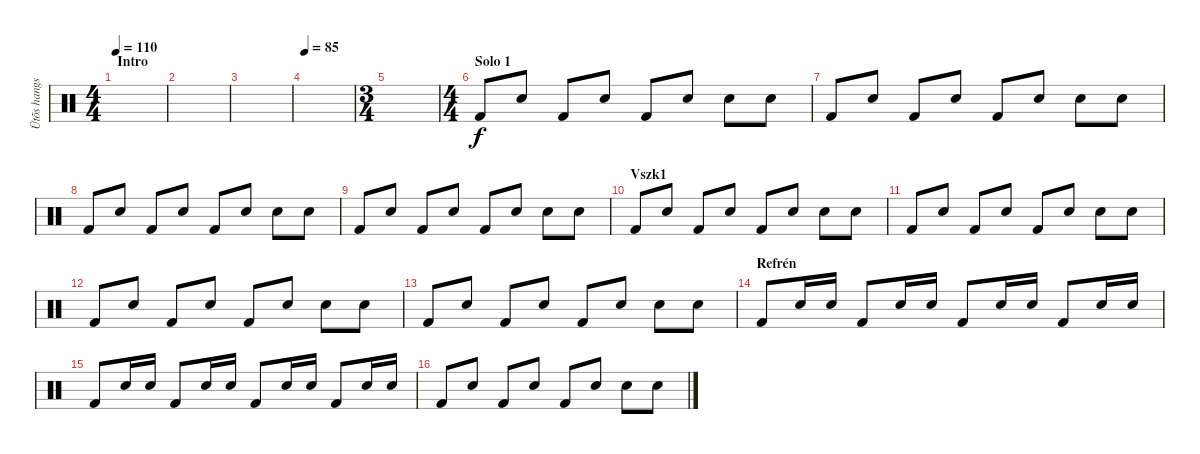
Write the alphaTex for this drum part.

\track ("Ütõs hangszer" "Ütõs hangs") {instrument percussion}
\staff {score}
\articulation defaults
\ts (4 4)
\section ("" "Intro")
\tempo 110
\clef neutral
\ks c
|
|
|
\tempo 85
|
\ts (3 4)
|
\ts (4 4)
\section ("" "Solo 1")
"Kick (hit) 2".8 "Electric Snare (hit)".8 "Kick (hit) 2".8 "Electric Snare (hit)".8 "Kick (hit) 2".8 "Electric Snare (hit)".8 "Electric Snare (hit)".8 "Electric Snare (hit)".8 |
"Kick (hit) 2".8 "Electric Snare (hit)".8 "Kick (hit) 2".8 "Electric Snare (hit)".8 "Kick (hit) 2".8 "Electric Snare (hit)".8 "Electric Snare (hit)".8 "Electric Snare (hit)".8 |
"Kick (hit) 2".8 "Electric Snare (hit)".8 "Kick (hit) 2".8 "Electric Snare (hit)".8 "Kick (hit) 2".8 "Electric Snare (hit)".8 "Electric Snare (hit)".8 "Electric Snare (hit)".8 |
"Kick (hit) 2".8 "Electric Snare (hit)".8 "Kick (hit) 2".8 "Electric Snare (hit)".8 "Kick (hit) 2".8 "Electric Snare (hit)".8 "Electric Snare (hit)".8 "Electric Snare (hit)".8 |
\section ("" "Vszk1")
"Kick (hit) 2".8 "Electric Snare (hit)".8 "Kick (hit) 2".8 "Electric Snare (hit)".8 "Kick (hit) 2".8 "Electric Snare (hit)".8 "Electric Snare (hit)".8 "Electric Snare (hit)".8 |
"Kick (hit) 2".8 "Electric Snare (hit)".8 "Kick (hit) 2".8 "Electric Snare (hit)".8 "Kick (hit) 2".8 "Electric Snare (hit)".8 "Electric Snare (hit)".8 "Electric Snare (hit)".8 |
"Kick (hit) 2".8 "Electric Snare (hit)".8 "Kick (hit) 2".8 "Electric Snare (hit)".8 "Kick (hit) 2".8 "Electric Snare (hit)".8 "Electric Snare (hit)".8 "Electric Snare (hit)".8 |
"Kick (hit) 2".8 "Electric Snare (hit)".8 "Kick (hit) 2".8 "Electric Snare (hit)".8 "Kick (hit) 2".8 "Electric Snare (hit)".8 "Electric Snare (hit)".8 "Electric Snare (hit)".8 |
\section ("" "Refrén")
"Kick (hit) 2".8 "Electric Snare (hit)".16 "Electric Snare (hit)".16 "Kick (hit) 2".8 "Electric Snare (hit)".16 "Electric Snare (hit)".16 "Kick (hit) 2".8 "Electric Snare (hit)".16 "Electric Snare (hit)".16 "Kick (hit) 2".8 "Electric Snare (hit)".16 "Electric Snare (hit)".16 |
"Kick (hit) 2".8 "Electric Snare (hit)".16 "Electric Snare (hit)".16 "Kick (hit) 2".8 "Electric Snare (hit)".16 "Electric Snare (hit)".16 "Kick (hit) 2".8 "Electric Snare (hit)".16 "Electric Snare (hit)".16 "Kick (hit) 2".8 "Electric Snare (hit)".16 "Electric Snare (hit)".16 |
"Kick (hit) 2".8 "Electric Snare (hit)".8 "Kick (hit) 2".8 "Electric Snare (hit)".8 "Kick (hit) 2".8 "Electric Snare (hit)".8 "Electric Snare (hit)".8 "Electric Snare (hit)".8
